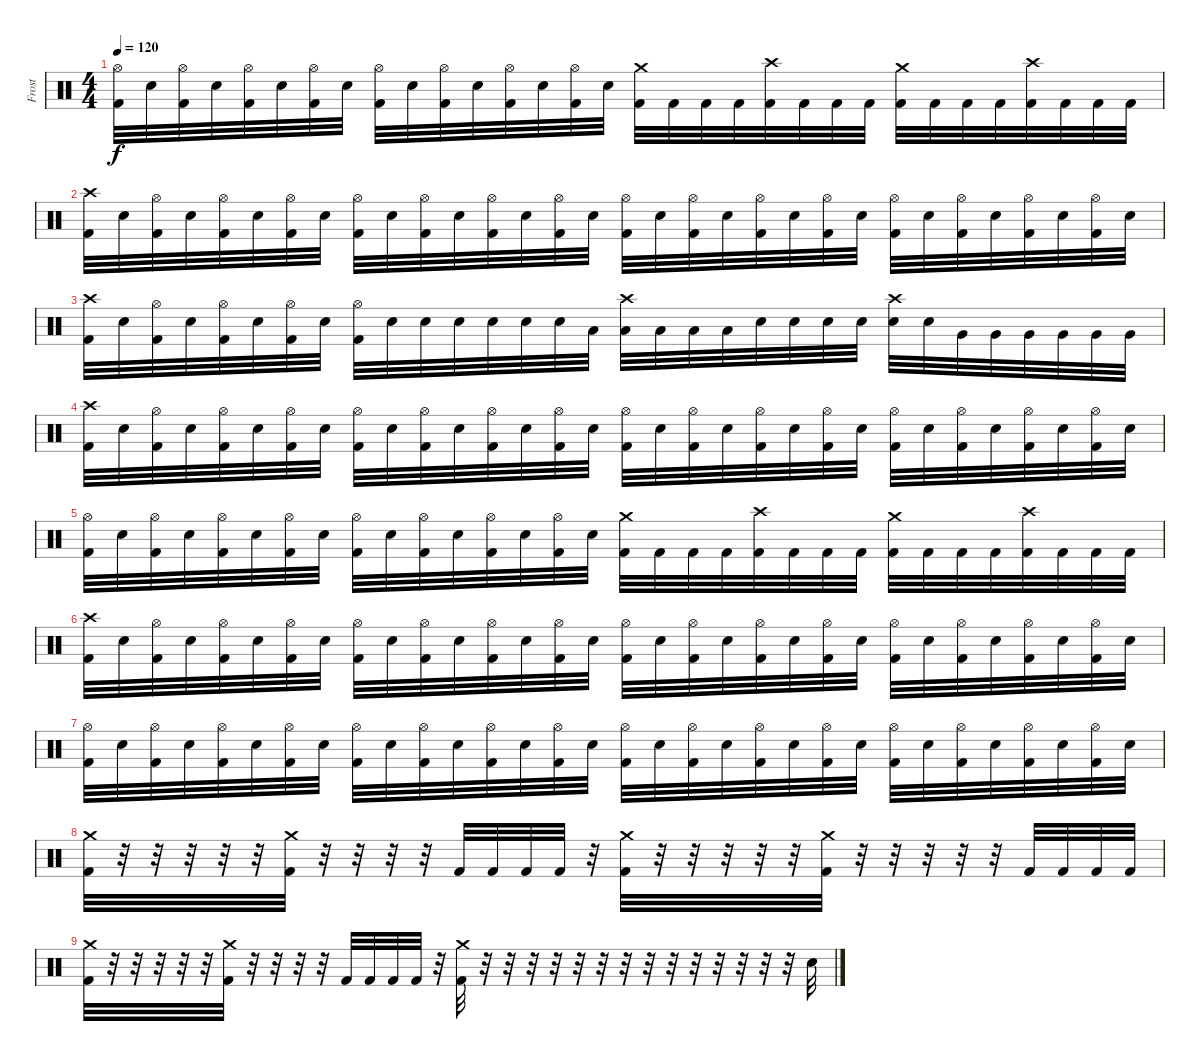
\track ("Frost" "Frost") {instrument percussion}
\staff {score}
\articulation defaults
\ts (4 4)
\tempo 120
\clef neutral
\ks c
("Hi-Hat (open)" "Kick (hit) 2").32{dy f} "Snare (hit) 2".32 ("Hi-Hat (open)" "Kick (hit) 2").32 "Snare (hit) 2".32 ("Hi-Hat (open)" "Kick (hit) 2").32 "Snare (hit) 2".32 ("Hi-Hat (open)" "Kick (hit) 2").32 "Snare (hit) 2".32 ("Hi-Hat (open)" "Kick (hit) 2").32 "Snare (hit) 2".32 ("Hi-Hat (open)" "Kick (hit) 2").32 "Snare (hit) 2".32 ("Hi-Hat (open)" "Kick (hit) 2").32 "Snare (hit) 2".32 ("Hi-Hat (open)" "Kick (hit) 2").32 "Snare (hit) 2".32 ("Crash medium (hit)" "Kick (hit) 2").32 "Kick (hit) 2".32 "Kick (hit) 2".32 "Kick (hit) 2".32 ("Crash high (hit)" "Kick (hit) 2").32 "Kick (hit) 2".32 "Kick (hit) 2".32 "Kick (hit) 2".32 ("Crash medium (hit)" "Kick (hit) 2").32 "Kick (hit) 2".32 "Kick (hit) 2".32 "Kick (hit) 2".32 ("Crash high (hit)" "Kick (hit) 2").32 "Kick (hit) 2".32 "Kick (hit) 2".32 "Kick (hit) 2".32 |
("Crash high (hit)" "Kick (hit) 2").32 "Snare (hit) 2".32 ("Hi-Hat (open)" "Kick (hit) 2").32 "Snare (hit) 2".32 ("Hi-Hat (open)" "Kick (hit) 2").32 "Snare (hit) 2".32 ("Hi-Hat (open)" "Kick (hit) 2").32 "Snare (hit) 2".32 ("Hi-Hat (open)" "Kick (hit) 2").32 "Snare (hit) 2".32 ("Hi-Hat (open)" "Kick (hit) 2").32 "Snare (hit) 2".32 ("Hi-Hat (open)" "Kick (hit) 2").32 "Snare (hit) 2".32 ("Hi-Hat (open)" "Kick (hit) 2").32 "Snare (hit) 2".32 ("Hi-Hat (open)" "Kick (hit) 2").32 "Snare (hit) 2".32 ("Hi-Hat (open)" "Kick (hit) 2").32 "Snare (hit) 2".32 ("Hi-Hat (open)" "Kick (hit) 2").32 "Snare (hit) 2".32 ("Hi-Hat (open)" "Kick (hit) 2").32 "Snare (hit) 2".32 ("Hi-Hat (open)" "Kick (hit) 2").32 "Snare (hit) 2".32 ("Hi-Hat (open)" "Kick (hit) 2").32 "Snare (hit) 2".32 ("Hi-Hat (open)" "Kick (hit) 2").32 "Snare (hit) 2".32 ("Hi-Hat (open)" "Kick (hit) 2").32 "Snare (hit) 2".32 |
("Crash high (hit)" "Kick (hit) 2").32 "Snare (hit) 2".32 ("Hi-Hat (open)" "Kick (hit) 2").32 "Snare (hit) 2".32 ("Hi-Hat (open)" "Kick (hit) 2").32 "Snare (hit) 2".32 ("Hi-Hat (open)" "Kick (hit) 2").32 "Snare (hit) 2".32 ("Hi-Hat (open)" "Kick (hit) 2").32 "Snare (hit) 2".32 "Snare (hit) 2".32 "Snare (hit) 2".32 "Snare (hit) 2".32 "Snare (hit) 2".32 "Snare (hit) 2".32 "Low Tom (hit)".32 ("Crash high (hit)" "Low Tom (hit)").32 "Low Tom (hit)".32 "Low Tom (hit)".32 "Low Tom (hit)".32 "Snare (hit) 2".32 "Snare (hit) 2".32 "Snare (hit) 2".32 "Snare (hit) 2".32 ("Crash high (hit)" "Snare (hit) 2").32 "Snare (hit) 2".32 "Very Low Tom (hit)".32 "Very Low Tom (hit)".32 "Very Low Tom (hit)".32 "Very Low Tom (hit)".32 "Very Low Tom (hit)".32 "Very Low Tom (hit)".32 |
("Crash high (hit)" "Kick (hit) 2").32 "Snare (hit) 2".32 ("Hi-Hat (open)" "Kick (hit) 2").32 "Snare (hit) 2".32 ("Hi-Hat (open)" "Kick (hit) 2").32 "Snare (hit) 2".32 ("Hi-Hat (open)" "Kick (hit) 2").32 "Snare (hit) 2".32 ("Hi-Hat (open)" "Kick (hit) 2").32 "Snare (hit) 2".32 ("Hi-Hat (open)" "Kick (hit) 2").32 "Snare (hit) 2".32 ("Hi-Hat (open)" "Kick (hit) 2").32 "Snare (hit) 2".32 ("Hi-Hat (open)" "Kick (hit) 2").32 "Snare (hit) 2".32 ("Hi-Hat (open)" "Kick (hit) 2").32 "Snare (hit) 2".32 ("Hi-Hat (open)" "Kick (hit) 2").32 "Snare (hit) 2".32 ("Hi-Hat (open)" "Kick (hit) 2").32 "Snare (hit) 2".32 ("Hi-Hat (open)" "Kick (hit) 2").32 "Snare (hit) 2".32 ("Hi-Hat (open)" "Kick (hit) 2").32 "Snare (hit) 2".32 ("Hi-Hat (open)" "Kick (hit) 2").32 "Snare (hit) 2".32 ("Hi-Hat (open)" "Kick (hit) 2").32 "Snare (hit) 2".32 ("Hi-Hat (open)" "Kick (hit) 2").32 "Snare (hit) 2".32 |
("Hi-Hat (open)" "Kick (hit) 2").32 "Snare (hit) 2".32 ("Hi-Hat (open)" "Kick (hit) 2").32 "Snare (hit) 2".32 ("Hi-Hat (open)" "Kick (hit) 2").32 "Snare (hit) 2".32 ("Hi-Hat (open)" "Kick (hit) 2").32 "Snare (hit) 2".32 ("Hi-Hat (open)" "Kick (hit) 2").32 "Snare (hit) 2".32 ("Hi-Hat (open)" "Kick (hit) 2").32 "Snare (hit) 2".32 ("Hi-Hat (open)" "Kick (hit) 2").32 "Snare (hit) 2".32 ("Hi-Hat (open)" "Kick (hit) 2").32 "Snare (hit) 2".32 ("Crash medium (hit)" "Kick (hit) 2").32 "Kick (hit) 2".32 "Kick (hit) 2".32 "Kick (hit) 2".32 ("Crash high (hit)" "Kick (hit) 2").32 "Kick (hit) 2".32 "Kick (hit) 2".32 "Kick (hit) 2".32 ("Crash medium (hit)" "Kick (hit) 2").32 "Kick (hit) 2".32 "Kick (hit) 2".32 "Kick (hit) 2".32 ("Crash high (hit)" "Kick (hit) 2").32 "Kick (hit) 2".32 "Kick (hit) 2".32 "Kick (hit) 2".32 |
("Crash high (hit)" "Kick (hit) 2").32 "Snare (hit) 2".32 ("Hi-Hat (open)" "Kick (hit) 2").32 "Snare (hit) 2".32 ("Hi-Hat (open)" "Kick (hit) 2").32 "Snare (hit) 2".32 ("Hi-Hat (open)" "Kick (hit) 2").32 "Snare (hit) 2".32 ("Hi-Hat (open)" "Kick (hit) 2").32 "Snare (hit) 2".32 ("Hi-Hat (open)" "Kick (hit) 2").32 "Snare (hit) 2".32 ("Hi-Hat (open)" "Kick (hit) 2").32 "Snare (hit) 2".32 ("Hi-Hat (open)" "Kick (hit) 2").32 "Snare (hit) 2".32 ("Hi-Hat (open)" "Kick (hit) 2").32 "Snare (hit) 2".32 ("Hi-Hat (open)" "Kick (hit) 2").32 "Snare (hit) 2".32 ("Hi-Hat (open)" "Kick (hit) 2").32 "Snare (hit) 2".32 ("Hi-Hat (open)" "Kick (hit) 2").32 "Snare (hit) 2".32 ("Hi-Hat (open)" "Kick (hit) 2").32 "Snare (hit) 2".32 ("Hi-Hat (open)" "Kick (hit) 2").32 "Snare (hit) 2".32 ("Hi-Hat (open)" "Kick (hit) 2").32 "Snare (hit) 2".32 ("Hi-Hat (open)" "Kick (hit) 2").32 "Snare (hit) 2".32 |
("Hi-Hat (open)" "Kick (hit) 2").32 "Snare (hit) 2".32 ("Hi-Hat (open)" "Kick (hit) 2").32 "Snare (hit) 2".32 ("Hi-Hat (open)" "Kick (hit) 2").32 "Snare (hit) 2".32 ("Hi-Hat (open)" "Kick (hit) 2").32 "Snare (hit) 2".32 ("Hi-Hat (open)" "Kick (hit) 2").32 "Snare (hit) 2".32 ("Hi-Hat (open)" "Kick (hit) 2").32 "Snare (hit) 2".32 ("Hi-Hat (open)" "Kick (hit) 2").32 "Snare (hit) 2".32 ("Hi-Hat (open)" "Kick (hit) 2").32 "Snare (hit) 2".32 ("Hi-Hat (open)" "Kick (hit) 2").32 "Snare (hit) 2".32 ("Hi-Hat (open)" "Kick (hit) 2").32 "Snare (hit) 2".32 ("Hi-Hat (open)" "Kick (hit) 2").32 "Snare (hit) 2".32 ("Hi-Hat (open)" "Kick (hit) 2").32 "Snare (hit) 2".32 ("Hi-Hat (open)" "Kick (hit) 2").32 "Snare (hit) 2".32 ("Hi-Hat (open)" "Kick (hit) 2").32 "Snare (hit) 2".32 ("Hi-Hat (open)" "Kick (hit) 2").32 "Snare (hit) 2".32 ("Hi-Hat (open)" "Kick (hit) 2").32 "Snare (hit) 2".32 |
("Crash medium (hit)" "Kick (hit) 2").32 r.32 r.32 r.32 r.32 r.32 ("Crash medium (hit)" "Kick (hit) 2").32 r.32 r.32 r.32 r.32 "Kick (hit) 2".32 "Kick (hit) 2".32 "Kick (hit) 2".32 "Kick (hit) 2".32 r.32 ("Crash medium (hit)" "Kick (hit) 2").32 r.32 r.32 r.32 r.32 r.32 ("Crash medium (hit)" "Kick (hit) 2").32 r.32 r.32 r.32 r.32 r.32 "Kick (hit) 2".32 "Kick (hit) 2".32 "Kick (hit) 2".32 "Kick (hit) 2".32 |
("Crash medium (hit)" "Kick (hit) 2").32 r.32 r.32 r.32 r.32 r.32 ("Crash medium (hit)" "Kick (hit) 2").32 r.32 r.32 r.32 r.32 "Kick (hit) 2".32 "Kick (hit) 2".32 "Kick (hit) 2".32 "Kick (hit) 2".32 r.32 ("Crash medium (hit)" "Kick (hit) 2").32 r.32 r.32 r.32 r.32 r.32 r.32 r.32 r.32 r.32 r.32 r.32 r.32 r.32 r.32 "Snare (hit)".32
